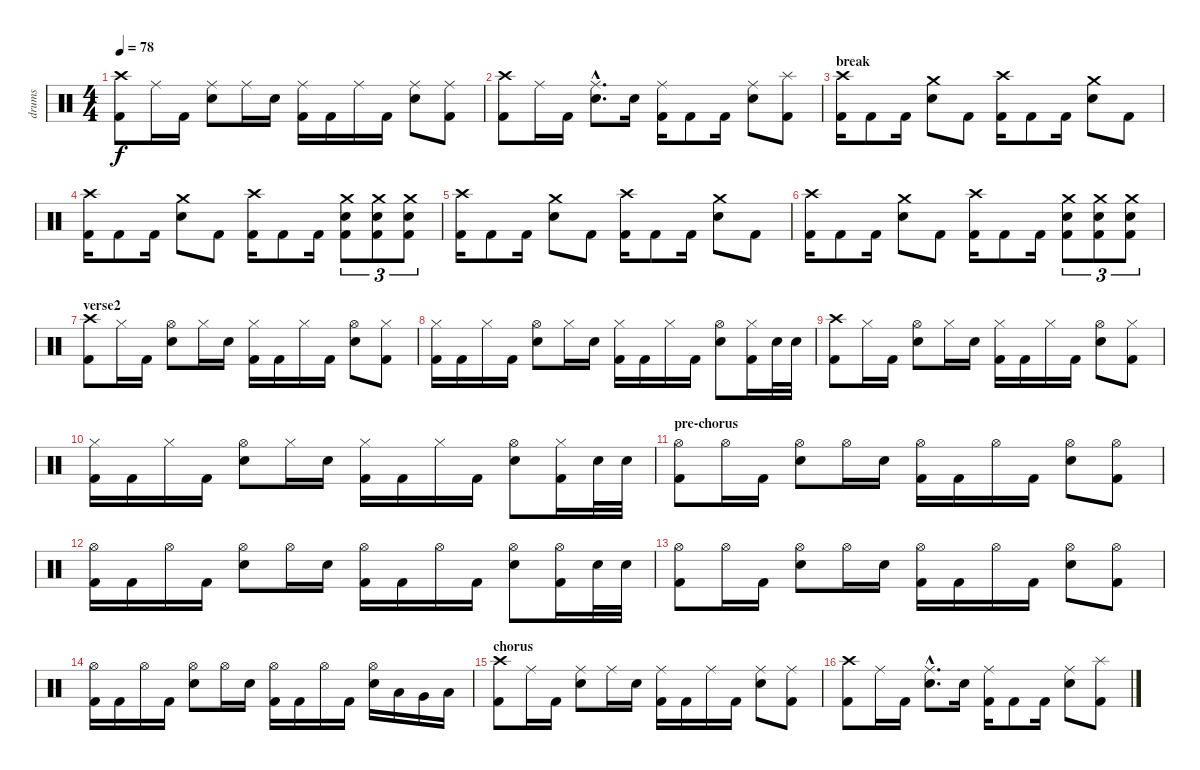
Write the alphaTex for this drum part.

\track ("drums" "drums") {instrument percussion}
\staff {score}
\articulation defaults
\ts (4 4)
\tempo 78
\clef neutral
\ks c
("Crash high (hit)" "Kick (hit) 2").8{dy f} "Ride (middle)".16 "Kick (hit) 2".16 ("Ride (middle)" "Electric Snare (hit)").8 "Ride (middle)".16 "Electric Snare (hit)".16 ("Ride (middle)" "Kick (hit) 2").16 "Kick (hit) 2".16 "Ride (middle)".16 "Kick (hit) 2".16 ("Ride (middle)" "Electric Snare (hit)").8 ("Ride (middle)" "Kick (hit) 2").8 |
("Crash high (hit)" "Kick (hit) 2").8 "Ride (middle)".16 "Kick (hit) 2".16 ("Ride (middle)"{hac} "Electric Snare (hit)"{hac}).8{d} "Electric Snare (hit)".16 ("Ride (middle)" "Kick (hit) 2").16 "Kick (hit) 2".8 "Kick (hit) 2".16 ("Ride (middle)" "Electric Snare (hit)").8 ("Splash (hit)" "Kick (hit) 2").8 |
\section ("" "break")
("Crash high (hit)" "Kick (hit) 2").16 "Kick (hit) 2".8 "Kick (hit) 2".16 ("Crash medium (hit)" "Electric Snare (hit)").8 "Kick (hit) 2".8 ("Crash high (hit)" "Kick (hit) 2").16 "Kick (hit) 2".8 "Kick (hit) 2".16 ("Crash medium (hit)" "Electric Snare (hit)").8 "Kick (hit) 2".8 |
("Crash high (hit)" "Kick (hit) 2").16 "Kick (hit) 2".8 "Kick (hit) 2".16 ("Crash medium (hit)" "Electric Snare (hit)").8 "Kick (hit) 2".8 ("Crash high (hit)" "Kick (hit) 2").16 "Kick (hit) 2".8 "Kick (hit) 2".16 ("Crash medium (hit)" "Electric Snare (hit)" "Kick (hit) 2").8{tu (3 2)} ("Crash medium (hit)" "Electric Snare (hit)" "Kick (hit) 2").8{tu (3 2)} ("Crash medium (hit)" "Electric Snare (hit)" "Kick (hit) 2").8{tu (3 2)} |
("Crash high (hit)" "Kick (hit) 2").16 "Kick (hit) 2".8 "Kick (hit) 2".16 ("Crash medium (hit)" "Electric Snare (hit)").8 "Kick (hit) 2".8 ("Crash high (hit)" "Kick (hit) 2").16 "Kick (hit) 2".8 "Kick (hit) 2".16 ("Crash medium (hit)" "Electric Snare (hit)").8 "Kick (hit) 2".8 |
("Crash high (hit)" "Kick (hit) 2").16 "Kick (hit) 2".8 "Kick (hit) 2".16 ("Crash medium (hit)" "Electric Snare (hit)").8 "Kick (hit) 2".8 ("Crash high (hit)" "Kick (hit) 2").16 "Kick (hit) 2".8 "Kick (hit) 2".16 ("Crash medium (hit)" "Electric Snare (hit)" "Kick (hit) 2").8{tu (3 2)} ("Crash medium (hit)" "Electric Snare (hit)" "Kick (hit) 2").8{tu (3 2)} ("Crash medium (hit)" "Electric Snare (hit)" "Kick (hit) 2").8{tu (3 2)} |
\section ("" "verse2")
("Crash high (hit)" "Kick (hit) 2").8 "Hi-Hat (closed)".16 "Kick (hit) 2".16 ("Hi-Hat (open)" "Electric Snare (hit)").8 "Hi-Hat (closed)".16 "Electric Snare (hit)".16 ("Hi-Hat (closed)" "Kick (hit) 2").16 "Kick (hit) 2".16 "Hi-Hat (closed)".16 "Kick (hit) 2".16 ("Hi-Hat (open)" "Electric Snare (hit)").8 ("Hi-Hat (closed)" "Kick (hit) 2").8 |
("Hi-Hat (closed)" "Kick (hit) 2").16 "Kick (hit) 2".16 "Hi-Hat (closed)".16 "Kick (hit) 2".16 ("Hi-Hat (open)" "Electric Snare (hit)").8 "Hi-Hat (closed)".16 "Electric Snare (hit)".16 ("Hi-Hat (closed)" "Kick (hit) 2").16 "Kick (hit) 2".16 "Hi-Hat (closed)".16 "Kick (hit) 2".16 ("Hi-Hat (open)" "Electric Snare (hit)").8 ("Hi-Hat (closed)" "Kick (hit) 2").16 "Electric Snare (hit)".32 "Electric Snare (hit)".32 |
("Crash high (hit)" "Kick (hit) 2").8 "Hi-Hat (closed)".16 "Kick (hit) 2".16 ("Hi-Hat (open)" "Electric Snare (hit)").8 "Hi-Hat (closed)".16 "Electric Snare (hit)".16 ("Hi-Hat (closed)" "Kick (hit) 2").16 "Kick (hit) 2".16 "Hi-Hat (closed)".16 "Kick (hit) 2".16 ("Hi-Hat (open)" "Electric Snare (hit)").8 ("Hi-Hat (closed)" "Kick (hit) 2").8 |
("Hi-Hat (closed)" "Kick (hit) 2").16 "Kick (hit) 2".16 "Hi-Hat (closed)".16 "Kick (hit) 2".16 ("Hi-Hat (open)" "Electric Snare (hit)").8 "Hi-Hat (closed)".16 "Electric Snare (hit)".16 ("Hi-Hat (closed)" "Kick (hit) 2").16 "Kick (hit) 2".16 "Hi-Hat (closed)".16 "Kick (hit) 2".16 ("Hi-Hat (open)" "Electric Snare (hit)").8 ("Hi-Hat (closed)" "Kick (hit) 2").16 "Electric Snare (hit)".32 "Electric Snare (hit)".32 |
\section ("" "pre-chorus")
("Hi-Hat (open)" "Kick (hit) 2").8 "Hi-Hat (open)".16 "Kick (hit) 2".16 ("Hi-Hat (open)" "Electric Snare (hit)").8 "Hi-Hat (open)".16 "Electric Snare (hit)".16 ("Hi-Hat (open)" "Kick (hit) 2").16 "Kick (hit) 2".16 "Hi-Hat (open)".16 "Kick (hit) 2".16 ("Hi-Hat (open)" "Electric Snare (hit)").8 ("Hi-Hat (open)" "Kick (hit) 2").8 |
("Hi-Hat (open)" "Kick (hit) 2").16 "Kick (hit) 2".16 "Hi-Hat (open)".16 "Kick (hit) 2".16 ("Hi-Hat (open)" "Electric Snare (hit)").8 "Hi-Hat (open)".16 "Electric Snare (hit)".16 ("Hi-Hat (open)" "Kick (hit) 2").16 "Kick (hit) 2".16 "Hi-Hat (open)".16 "Kick (hit) 2".16 ("Hi-Hat (open)" "Electric Snare (hit)").8 ("Hi-Hat (open)" "Kick (hit) 2").16 "Electric Snare (hit)".32 "Electric Snare (hit)".32 |
("Hi-Hat (open)" "Kick (hit) 2").8 "Hi-Hat (open)".16 "Kick (hit) 2".16 ("Hi-Hat (open)" "Electric Snare (hit)").8 "Hi-Hat (open)".16 "Electric Snare (hit)".16 ("Hi-Hat (open)" "Kick (hit) 2").16 "Kick (hit) 2".16 "Hi-Hat (open)".16 "Kick (hit) 2".16 ("Hi-Hat (open)" "Electric Snare (hit)").8 ("Hi-Hat (open)" "Kick (hit) 2").8 |
("Hi-Hat (open)" "Kick (hit) 2").16 "Kick (hit) 2".16 "Hi-Hat (open)".16 "Kick (hit) 2".16 ("Hi-Hat (open)" "Electric Snare (hit)").8 "Hi-Hat (open)".16 "Electric Snare (hit)".16 ("Hi-Hat (open)" "Kick (hit) 2").16 "Kick (hit) 2".16 "Hi-Hat (open)".16 "Kick (hit) 2".16 ("Hi-Hat (open)" "Electric Snare (hit)").16 "Low Tom (hit)".16 "Very Low Tom (hit)".16 "Low Floor Tom (hit)".16 |
\section ("" "chorus")
("Crash high (hit)" "Kick (hit) 2").8 "Ride (middle)".16 "Kick (hit) 2".16 ("Ride (middle)" "Electric Snare (hit)").8 "Ride (middle)".16 "Electric Snare (hit)".16 ("Ride (middle)" "Kick (hit) 2").16 "Kick (hit) 2".16 "Ride (middle)".16 "Kick (hit) 2".16 ("Ride (middle)" "Electric Snare (hit)").8 ("Ride (middle)" "Kick (hit) 2").8 |
("Crash high (hit)" "Kick (hit) 2").8 "Ride (middle)".16 "Kick (hit) 2".16 ("Ride (middle)"{hac} "Electric Snare (hit)"{hac}).8{d} "Electric Snare (hit)".16 ("Ride (middle)" "Kick (hit) 2").16 "Kick (hit) 2".8 "Kick (hit) 2".16 ("Ride (middle)" "Electric Snare (hit)").8 ("Splash (hit)" "Kick (hit) 2").8
